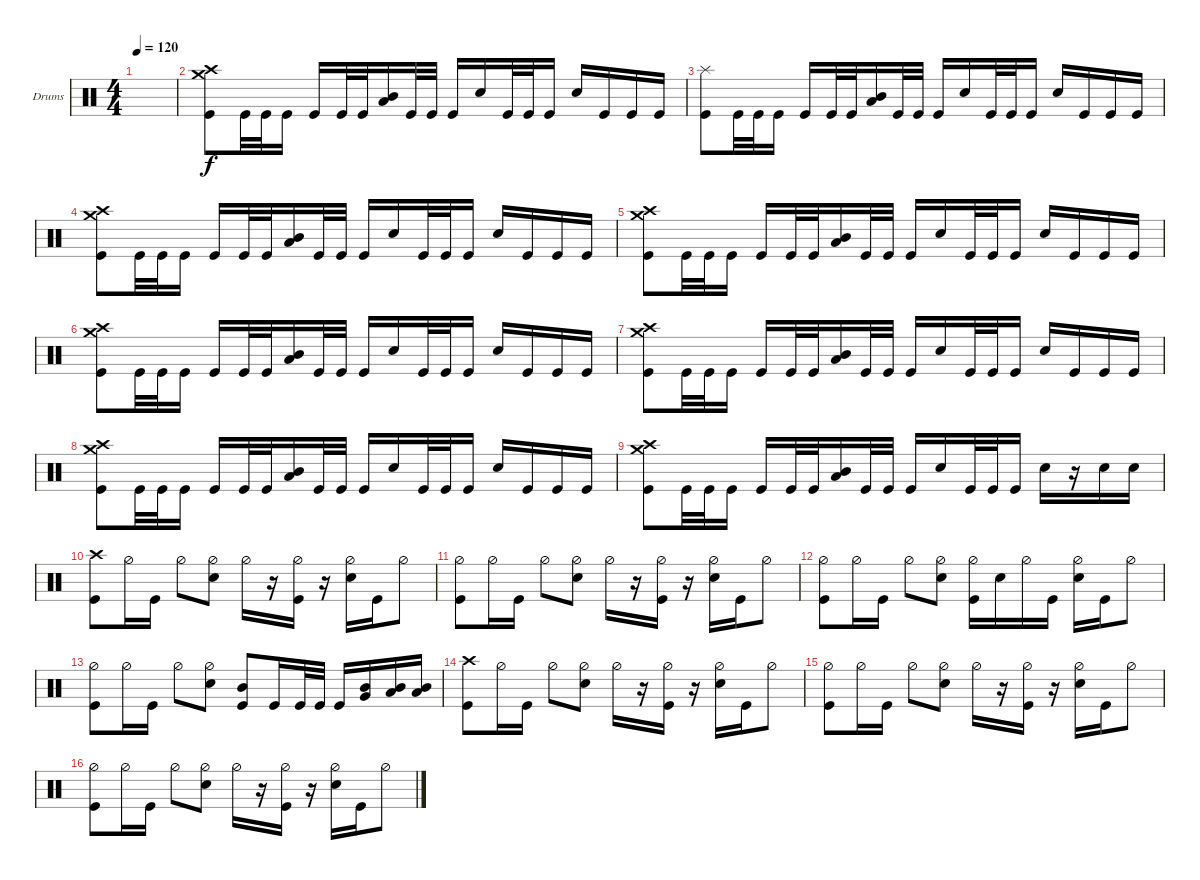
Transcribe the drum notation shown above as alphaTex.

\defaultSystemsLayout 4
\bracketExtendMode groupsimilarinstruments
\firstSystemTrackNameOrientation horizontal
\otherSystemsTrackNameOrientation horizontal
\track ("Drumkit" "Drums") {instrument percussion}
\staff {score}
\articulation defaults
\ts (4 4)
\tempo 120
\clef neutral
\ks c
|
("Crash high (hit)" "Crash medium (hit)" "Kick (hit)").8 "Kick (hit)".32 "Kick (hit)".32 "Kick (hit)".16 "Kick (hit)".16 "Kick (hit)".32 "Kick (hit)".32 ("Mid Tom (hit)" "Low Tom (hit)").16 "Kick (hit)".32 "Kick (hit)".32 "Kick (hit)".16 "Snare (hit) 2".16 "Kick (hit)".32 "Kick (hit)".32 "Kick (hit)".16 "Snare (hit) 2".16 "Kick (hit)".16 "Kick (hit)".16 "Kick (hit)".16 |
("Kick (hit)" "Splash (hit)").8 "Kick (hit)".32 "Kick (hit)".32 "Kick (hit)".16 "Kick (hit)".16 "Kick (hit)".32 "Kick (hit)".32 ("Mid Tom (hit)" "Low Tom (hit)").16 "Kick (hit)".32 "Kick (hit)".32 "Kick (hit)".16 "Snare (hit) 2".16 "Kick (hit)".32 "Kick (hit)".32 "Kick (hit)".16 "Snare (hit) 2".16 "Kick (hit)".16 "Kick (hit)".16 "Kick (hit)".16 |
("Crash high (hit)" "Crash medium (hit)" "Kick (hit)").8 "Kick (hit)".32 "Kick (hit)".32 "Kick (hit)".16 "Kick (hit)".16 "Kick (hit)".32 "Kick (hit)".32 ("Mid Tom (hit)" "Low Tom (hit)").16 "Kick (hit)".32 "Kick (hit)".32 "Kick (hit)".16 "Snare (hit) 2".16 "Kick (hit)".32 "Kick (hit)".32 "Kick (hit)".16 "Snare (hit) 2".16 "Kick (hit)".16 "Kick (hit)".16 "Kick (hit)".16 |
("Crash high (hit)" "Crash medium (hit)" "Kick (hit)").8 "Kick (hit)".32 "Kick (hit)".32 "Kick (hit)".16 "Kick (hit)".16 "Kick (hit)".32 "Kick (hit)".32 ("Mid Tom (hit)" "Low Tom (hit)").16 "Kick (hit)".32 "Kick (hit)".32 "Kick (hit)".16 "Snare (hit) 2".16 "Kick (hit)".32 "Kick (hit)".32 "Kick (hit)".16 "Snare (hit) 2".16 "Kick (hit)".16 "Kick (hit)".16 "Kick (hit)".16 |
("Crash high (hit)" "Crash medium (hit)" "Kick (hit)").8 "Kick (hit)".32 "Kick (hit)".32 "Kick (hit)".16 "Kick (hit)".16 "Kick (hit)".32 "Kick (hit)".32 ("Mid Tom (hit)" "Low Tom (hit)").16 "Kick (hit)".32 "Kick (hit)".32 "Kick (hit)".16 "Snare (hit) 2".16 "Kick (hit)".32 "Kick (hit)".32 "Kick (hit)".16 "Snare (hit) 2".16 "Kick (hit)".16 "Kick (hit)".16 "Kick (hit)".16 |
("Crash high (hit)" "Crash medium (hit)" "Kick (hit)").8 "Kick (hit)".32 "Kick (hit)".32 "Kick (hit)".16 "Kick (hit)".16 "Kick (hit)".32 "Kick (hit)".32 ("Mid Tom (hit)" "Low Tom (hit)").16 "Kick (hit)".32 "Kick (hit)".32 "Kick (hit)".16 "Snare (hit) 2".16 "Kick (hit)".32 "Kick (hit)".32 "Kick (hit)".16 "Snare (hit) 2".16 "Kick (hit)".16 "Kick (hit)".16 "Kick (hit)".16 |
("Crash high (hit)" "Crash medium (hit)" "Kick (hit)").8 "Kick (hit)".32 "Kick (hit)".32 "Kick (hit)".16 "Kick (hit)".16 "Kick (hit)".32 "Kick (hit)".32 ("Mid Tom (hit)" "Low Tom (hit)").16 "Kick (hit)".32 "Kick (hit)".32 "Kick (hit)".16 "Snare (hit) 2".16 "Kick (hit)".32 "Kick (hit)".32 "Kick (hit)".16 "Snare (hit) 2".16 "Kick (hit)".16 "Kick (hit)".16 "Kick (hit)".16 |
("Crash high (hit)" "Crash medium (hit)" "Kick (hit)").8 "Kick (hit)".32 "Kick (hit)".32 "Kick (hit)".16 "Kick (hit)".16 "Kick (hit)".32 "Kick (hit)".32 ("Mid Tom (hit)" "Low Tom (hit)").16 "Kick (hit)".32 "Kick (hit)".32 "Kick (hit)".16 "Snare (hit) 2".16 "Kick (hit)".32 "Kick (hit)".32 "Kick (hit)".16 "Snare (hit) 2".16 r.16 "Snare (hit) 2".16 "Snare (hit) 2".16 |
("Crash high (hit)" "Kick (hit)").8 "Hi-Hat (half)".16 "Kick (hit)".16 "Hi-Hat (half)".8 ("Snare (hit) 2" "Hi-Hat (half)").8 "Hi-Hat (half)".16 r.16 ("Hi-Hat (half)" "Kick (hit)").16 r.16 ("Snare (hit) 2" "Hi-Hat (half)").16 "Kick (hit)".16 "Hi-Hat (half)".8 |
("Kick (hit)" "Hi-Hat (half)").8 "Hi-Hat (half)".16 "Kick (hit)".16 "Hi-Hat (half)".8 ("Snare (hit) 2" "Hi-Hat (half)").8 "Hi-Hat (half)".16 r.16 ("Hi-Hat (half)" "Kick (hit)").16 r.16 ("Snare (hit) 2" "Hi-Hat (half)").16 "Kick (hit)".16 "Hi-Hat (half)".8 |
("Kick (hit)" "Hi-Hat (half)").8 "Hi-Hat (half)".16 "Kick (hit)".16 "Hi-Hat (half)".8 ("Snare (hit) 2" "Hi-Hat (half)").8 ("Kick (hit)" "Hi-Hat (half)").16 "Snare (hit) 2".16 "Hi-Hat (half)".16 "Kick (hit)".16 ("Snare (hit) 2" "Hi-Hat (half)").16 "Kick (hit)".16 "Hi-Hat (half)".8 |
("Kick (hit)" "Hi-Hat (half)").8 "Hi-Hat (half)".16 "Kick (hit)".16 "Hi-Hat (half)".8 ("Snare (hit) 2" "Hi-Hat (half)").8 ("Mid Tom (hit)" "Kick (hit)").8 "Kick (hit)".16 "Kick (hit)".32 "Kick (hit)".32 "Kick (hit)".16 ("Very Low Tom (hit)" "Mid Tom (hit)").16 ("Low Tom (hit)" "Mid Tom (hit)").16 ("Low Tom (hit)" "Mid Tom (hit)").16 |
("Crash high (hit)" "Kick (hit)").8 "Hi-Hat (half)".16 "Kick (hit)".16 "Hi-Hat (half)".8 ("Snare (hit) 2" "Hi-Hat (half)").8 "Hi-Hat (half)".16 r.16 ("Hi-Hat (half)" "Kick (hit)").16 r.16 ("Snare (hit) 2" "Hi-Hat (half)").16 "Kick (hit)".16 "Hi-Hat (half)".8 |
("Kick (hit)" "Hi-Hat (half)").8 "Hi-Hat (half)".16 "Kick (hit)".16 "Hi-Hat (half)".8 ("Snare (hit) 2" "Hi-Hat (half)").8 "Hi-Hat (half)".16 r.16 ("Hi-Hat (half)" "Kick (hit)").16 r.16 ("Snare (hit) 2" "Hi-Hat (half)").16 "Kick (hit)".16 "Hi-Hat (half)".8 |
("Kick (hit)" "Hi-Hat (half)").8 "Hi-Hat (half)".16 "Kick (hit)".16 "Hi-Hat (half)".8 ("Snare (hit) 2" "Hi-Hat (half)").8 "Hi-Hat (half)".16 r.16 ("Hi-Hat (half)" "Kick (hit)").16 r.16 ("Snare (hit) 2" "Hi-Hat (half)").16 "Kick (hit)".16 "Hi-Hat (half)".8
